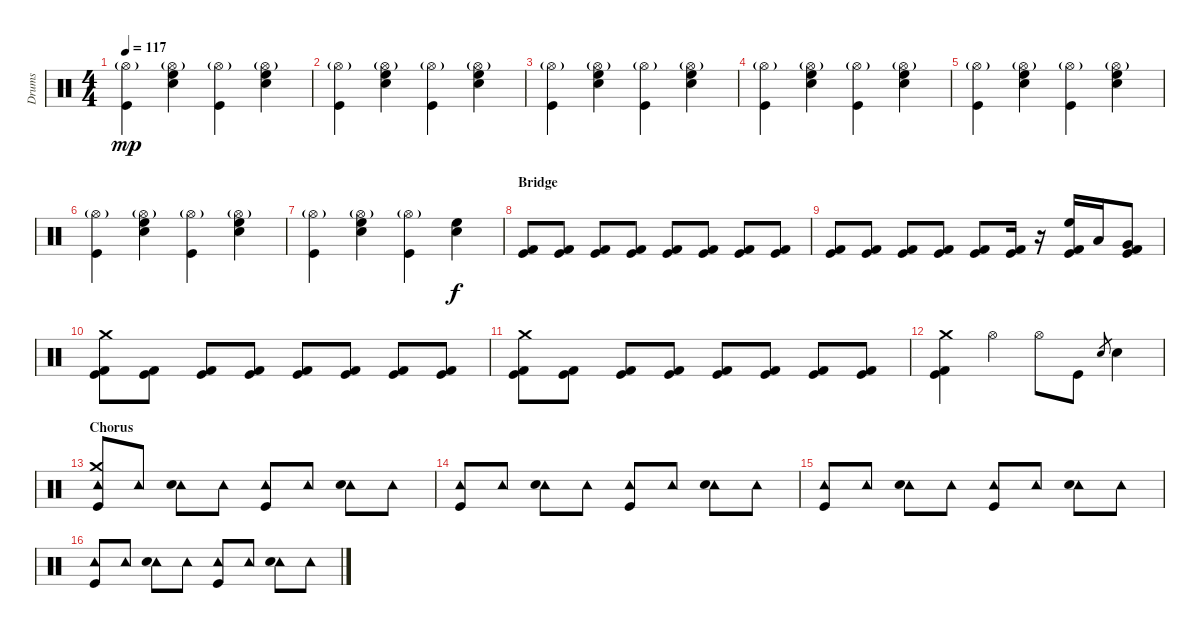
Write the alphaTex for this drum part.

\track ("Drums" "Drums") {instrument percussion}
\staff {score}
\articulation defaults
\ts (4 4)
\tempo 117
\clef neutral
\ks c
("Hi-Hat (open)"{g} "Kick (hit)").4{dy mp} ("Hi-Hat (open)"{g} "High Floor Tom (hit)" "Electric Snare (hit)").4 ("Hi-Hat (open)"{g} "Kick (hit)").4 ("Hi-Hat (open)"{g} "High Floor Tom (hit)" "Electric Snare (hit)").4 |
("Hi-Hat (open)"{g} "Kick (hit)").4 ("Hi-Hat (open)"{g} "High Floor Tom (hit)" "Electric Snare (hit)").4 ("Hi-Hat (open)"{g} "Kick (hit)").4 ("Hi-Hat (open)"{g} "High Floor Tom (hit)" "Electric Snare (hit)").4 |
("Hi-Hat (open)"{g} "Kick (hit)").4 ("Hi-Hat (open)"{g} "High Floor Tom (hit)" "Electric Snare (hit)").4 ("Hi-Hat (open)"{g} "Kick (hit)").4 ("Hi-Hat (open)"{g} "High Floor Tom (hit)" "Electric Snare (hit)").4 |
("Hi-Hat (open)"{g} "Kick (hit)").4 ("Hi-Hat (open)"{g} "High Floor Tom (hit)" "Electric Snare (hit)").4 ("Hi-Hat (open)"{g} "Kick (hit)").4 ("Hi-Hat (open)"{g} "High Floor Tom (hit)" "Electric Snare (hit)").4 |
("Hi-Hat (open)"{g} "Kick (hit)").4 ("Hi-Hat (open)"{g} "High Floor Tom (hit)" "Electric Snare (hit)").4 ("Hi-Hat (open)"{g} "Kick (hit)").4 ("Hi-Hat (open)"{g} "High Floor Tom (hit)" "Electric Snare (hit)").4 |
("Hi-Hat (open)"{g} "Kick (hit)").4 ("Hi-Hat (open)"{g} "High Floor Tom (hit)" "Electric Snare (hit)").4 ("Hi-Hat (open)"{g} "Kick (hit)").4 ("Hi-Hat (open)"{g} "High Floor Tom (hit)" "Electric Snare (hit)").4 |
("Hi-Hat (open)"{g} "Kick (hit)").4 ("Hi-Hat (open)"{g} "High Floor Tom (hit)" "Electric Snare (hit)").4 ("Hi-Hat (open)"{g} "Kick (hit)").4 ("High Floor Tom (hit)" "Electric Snare (hit)").4{dy f} |
\section ("" "Bridge")
("Kick (hit) 2" "Kick (hit)").8 ("Kick (hit) 2" "Kick (hit)").8 ("Kick (hit) 2" "Kick (hit)").8 ("Kick (hit) 2" "Kick (hit)").8 ("Kick (hit) 2" "Kick (hit)").8 ("Kick (hit) 2" "Kick (hit)").8 ("Kick (hit) 2" "Kick (hit)").8 ("Kick (hit) 2" "Kick (hit)").8 |
("Kick (hit) 2" "Kick (hit)").8 ("Kick (hit) 2" "Kick (hit)").8 ("Kick (hit) 2" "Kick (hit)").8 ("Kick (hit) 2" "Kick (hit)").8 ("Kick (hit) 2" "Kick (hit)").8 ("Kick (hit) 2" "Kick (hit)").16 r.16 ("High Floor Tom (hit)" "Kick (hit) 2" "Kick (hit)").16 "Low Tom (hit)".16 ("Very Low Tom (hit)" "Kick (hit) 2" "Kick (hit)").8 |
("Crash medium (hit)" "Kick (hit) 2" "Kick (hit)").8 ("Kick (hit) 2" "Kick (hit)").8 ("Kick (hit) 2" "Kick (hit)").8 ("Kick (hit) 2" "Kick (hit)").8 ("Kick (hit) 2" "Kick (hit)").8 ("Kick (hit) 2" "Kick (hit)").8 ("Kick (hit) 2" "Kick (hit)").8 ("Kick (hit) 2" "Kick (hit)").8 |
("Crash medium (hit)" "Kick (hit) 2" "Kick (hit)").8 ("Kick (hit) 2" "Kick (hit)").8 ("Kick (hit) 2" "Kick (hit)").8 ("Kick (hit) 2" "Kick (hit)").8 ("Kick (hit) 2" "Kick (hit)").8 ("Kick (hit) 2" "Kick (hit)").8 ("Kick (hit) 2" "Kick (hit)").8 ("Kick (hit) 2" "Kick (hit)").8 |
("Crash medium (hit)" "Kick (hit) 2" "Kick (hit)").4 "Hi-Hat (open)".4 "Hi-Hat (open)".8 "Kick (hit)".8 "Electric Snare (hit)".8{gr} "Electric Snare (hit)".4 |
\section ("" "Chorus")
("Crash medium (hit)" "Tambourine (hit)" "Kick (hit)").8 "Tambourine (hit)".8 ("Tambourine (hit)" "Electric Snare (hit)").8 "Tambourine (hit)".8 ("Tambourine (hit)" "Kick (hit)").8 "Tambourine (hit)".8 ("Tambourine (hit)" "Electric Snare (hit)").8 "Tambourine (hit)".8 |
("Tambourine (hit)" "Kick (hit)").8 "Tambourine (hit)".8 ("Tambourine (hit)" "Electric Snare (hit)").8 "Tambourine (hit)".8 ("Tambourine (hit)" "Kick (hit)").8 "Tambourine (hit)".8 ("Tambourine (hit)" "Electric Snare (hit)").8 "Tambourine (hit)".8 |
("Tambourine (hit)" "Kick (hit)").8 "Tambourine (hit)".8 ("Tambourine (hit)" "Electric Snare (hit)").8 "Tambourine (hit)".8 ("Tambourine (hit)" "Kick (hit)").8 "Tambourine (hit)".8 ("Tambourine (hit)" "Electric Snare (hit)").8 "Tambourine (hit)".8 |
("Tambourine (hit)" "Kick (hit)").8 "Tambourine (hit)".8 ("Tambourine (hit)" "Electric Snare (hit)").8 "Tambourine (hit)".8 ("Tambourine (hit)" "Kick (hit)").8 "Tambourine (hit)".8 ("Tambourine (hit)" "Electric Snare (hit)").8 "Tambourine (hit)".8
